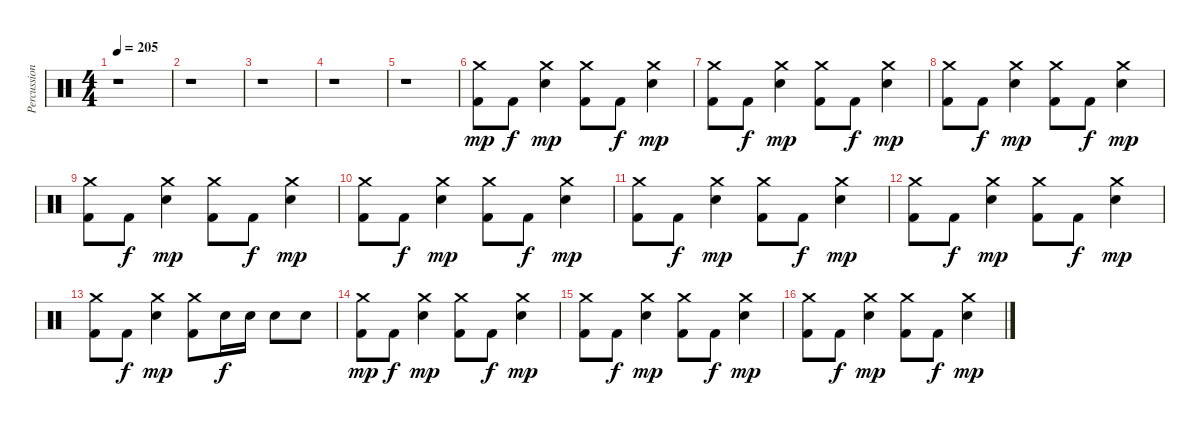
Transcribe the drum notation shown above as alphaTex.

\track ("Percussions" "Percussion") {instrument percussion}
\staff {score}
\articulation defaults
\ts (4 4)
\tempo 205
\clef neutral
\ks c
r.1{dy mp} |
r.1 |
r.1 |
r.1 |
r.1 |
("Crash medium (hit)" "Kick (hit) 2").8 "Kick (hit) 2".8{dy f} ("Crash medium (hit)" "Snare (hit) 2").4{dy mp} ("Crash medium (hit)" "Kick (hit) 2").8 "Kick (hit) 2".8{dy f} ("Crash medium (hit)" "Snare (hit) 2").4{dy mp} |
("Crash medium (hit)" "Kick (hit) 2").8 "Kick (hit) 2".8{dy f} ("Crash medium (hit)" "Snare (hit) 2").4{dy mp} ("Crash medium (hit)" "Kick (hit) 2").8 "Kick (hit) 2".8{dy f} ("Crash medium (hit)" "Snare (hit) 2").4{dy mp} |
("Crash medium (hit)" "Kick (hit) 2").8 "Kick (hit) 2".8{dy f} ("Crash medium (hit)" "Snare (hit) 2").4{dy mp} ("Crash medium (hit)" "Kick (hit) 2").8 "Kick (hit) 2".8{dy f} ("Crash medium (hit)" "Snare (hit) 2").4{dy mp} |
("Crash medium (hit)" "Kick (hit) 2").8 "Kick (hit) 2".8{dy f} ("Crash medium (hit)" "Snare (hit) 2").4{dy mp} ("Crash medium (hit)" "Kick (hit) 2").8 "Kick (hit) 2".8{dy f} ("Crash medium (hit)" "Snare (hit) 2").4{dy mp} |
("Crash medium (hit)" "Kick (hit) 2").8 "Kick (hit) 2".8{dy f} ("Crash medium (hit)" "Snare (hit) 2").4{dy mp} ("Crash medium (hit)" "Kick (hit) 2").8 "Kick (hit) 2".8{dy f} ("Crash medium (hit)" "Snare (hit) 2").4{dy mp} |
("Crash medium (hit)" "Kick (hit) 2").8 "Kick (hit) 2".8{dy f} ("Crash medium (hit)" "Snare (hit) 2").4{dy mp} ("Crash medium (hit)" "Kick (hit) 2").8 "Kick (hit) 2".8{dy f} ("Crash medium (hit)" "Snare (hit) 2").4{dy mp} |
("Crash medium (hit)" "Kick (hit) 2").8 "Kick (hit) 2".8{dy f} ("Crash medium (hit)" "Snare (hit) 2").4{dy mp} ("Crash medium (hit)" "Kick (hit) 2").8 "Kick (hit) 2".8{dy f} ("Crash medium (hit)" "Snare (hit) 2").4{dy mp} |
("Crash medium (hit)" "Kick (hit) 2").8 "Kick (hit) 2".8{dy f} ("Crash medium (hit)" "Snare (hit) 2").4{dy mp} ("Crash medium (hit)" "Kick (hit) 2").8 "Snare (hit) 2".16{dy f} "Snare (hit) 2".16 "Snare (hit) 2".8 "Snare (hit) 2".8 |
("Crash medium (hit)" "Kick (hit) 2").8{dy mp} "Kick (hit) 2".8{dy f} ("Crash medium (hit)" "Snare (hit) 2").4{dy mp} ("Crash medium (hit)" "Kick (hit) 2").8 "Kick (hit) 2".8{dy f} ("Crash medium (hit)" "Snare (hit) 2").4{dy mp} |
("Crash medium (hit)" "Kick (hit) 2").8 "Kick (hit) 2".8{dy f} ("Crash medium (hit)" "Snare (hit) 2").4{dy mp} ("Crash medium (hit)" "Kick (hit) 2").8 "Kick (hit) 2".8{dy f} ("Crash medium (hit)" "Snare (hit) 2").4{dy mp} |
("Crash medium (hit)" "Kick (hit) 2").8 "Kick (hit) 2".8{dy f} ("Crash medium (hit)" "Snare (hit) 2").4{dy mp} ("Crash medium (hit)" "Kick (hit) 2").8 "Kick (hit) 2".8{dy f} ("Crash medium (hit)" "Snare (hit) 2").4{dy mp}
